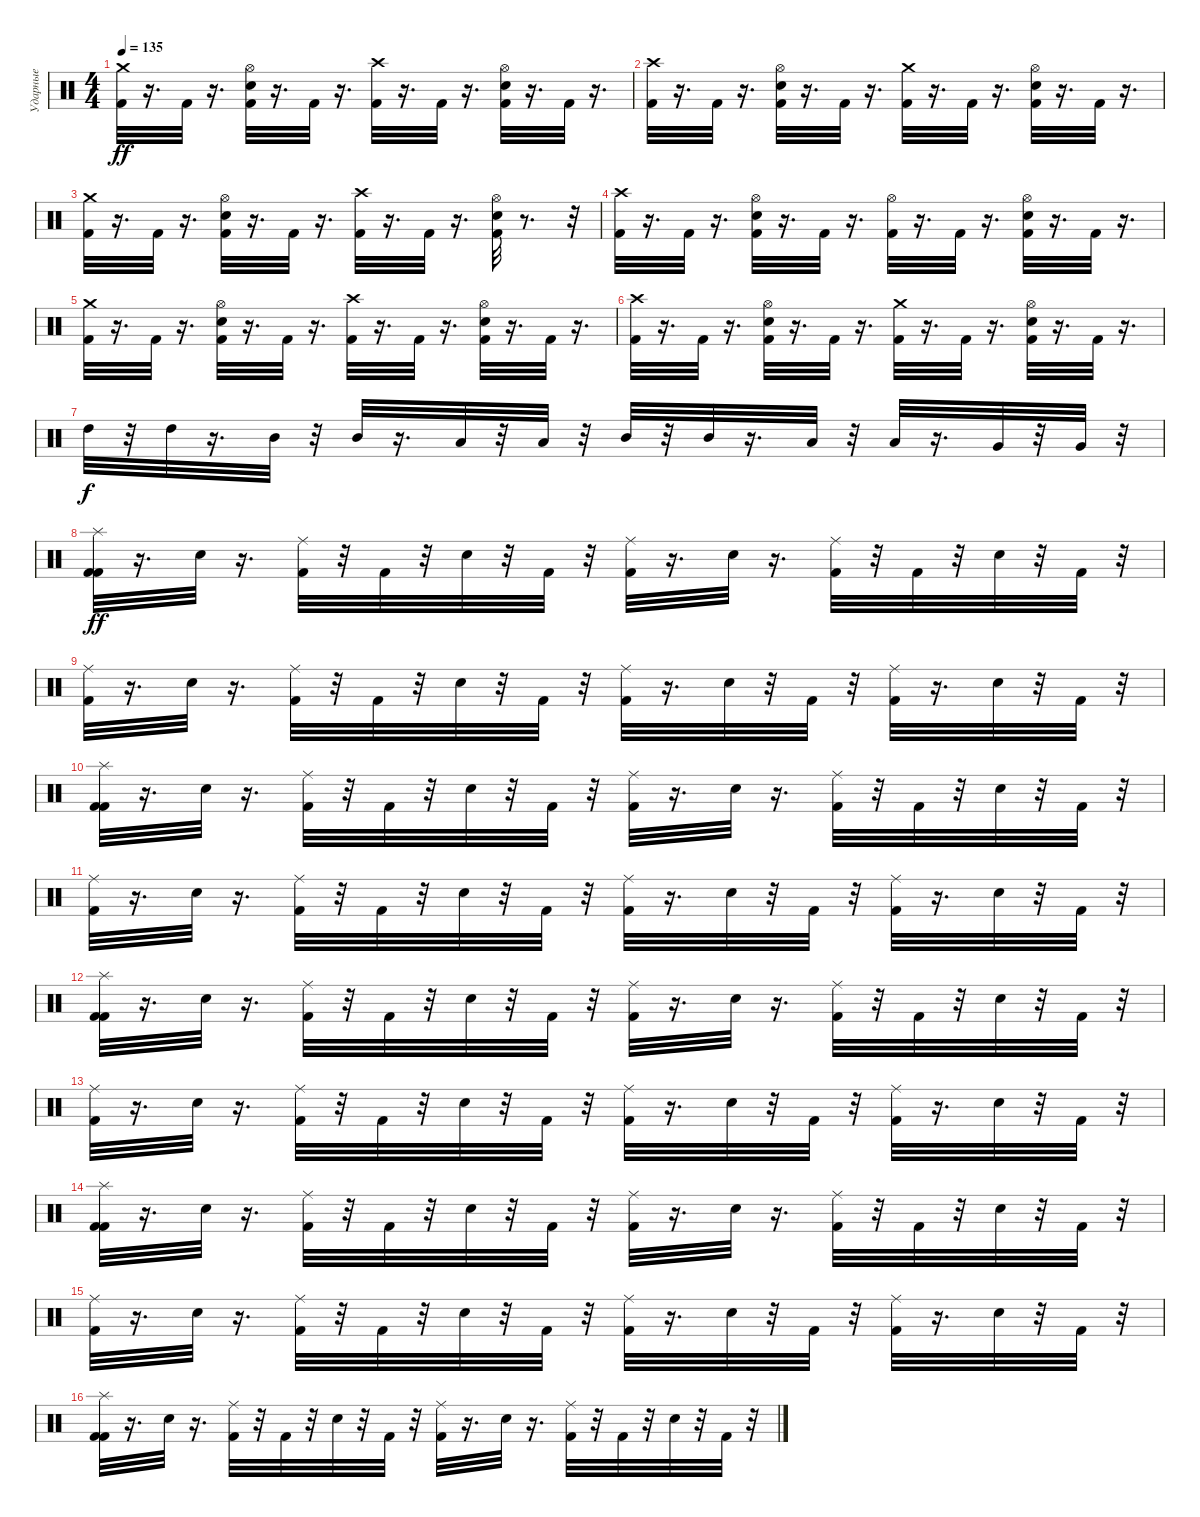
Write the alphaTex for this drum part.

\track ("Ударные" "Ударные") {instrument percussion}
\staff {score}
\articulation defaults
\ts (4 4)
\tempo 135
\clef neutral
\ks c
("Kick (hit) 2" "Crash medium (hit)").32{dy ff} r.16{d} "Kick (hit) 2".32 r.16{d} ("Electric Snare (hit)" "Kick (hit) 2" "Hi-Hat (open)").32 r.16{d} "Kick (hit) 2".32 r.16{d} ("Kick (hit) 2" "Crash high (hit)").32 r.16{d} "Kick (hit) 2".32 r.16{d} ("Electric Snare (hit)" "Kick (hit) 2" "Hi-Hat (open)").32 r.16{d} "Kick (hit) 2".32 r.16{d} |
("Crash high (hit)" "Kick (hit) 2").32 r.16{d} "Kick (hit) 2".32 r.16{d} ("Electric Snare (hit)" "Hi-Hat (open)" "Kick (hit) 2").32 r.16{d} "Kick (hit) 2".32 r.16{d} ("Crash medium (hit)" "Kick (hit) 2").32 r.16{d} "Kick (hit) 2".32 r.16{d} ("Electric Snare (hit)" "Hi-Hat (open)" "Kick (hit) 2").32 r.16{d} "Kick (hit) 2".32 r.16{d} |
("Crash medium (hit)" "Kick (hit) 2").32 r.16{d} "Kick (hit) 2".32 r.16{d} ("Hi-Hat (open)" "Electric Snare (hit)" "Kick (hit) 2").32 r.16{d} "Kick (hit) 2".32 r.16{d} ("Crash high (hit)" "Kick (hit) 2").32 r.16{d} "Kick (hit) 2".32 r.16{d} ("Hi-Hat (open)" "Electric Snare (hit)" "Kick (hit) 2").32 r.8{d} r.32 |
("Crash high (hit)" "Kick (hit) 2").32 r.16{d} "Kick (hit) 2".32 r.16{d} ("Kick (hit) 2" "Electric Snare (hit)" "Hi-Hat (open)").32 r.16{d} "Kick (hit) 2".32 r.16{d} ("Hi-Hat (open)" "Kick (hit) 2").32 r.16{d} "Kick (hit) 2".32 r.16{d} ("Electric Snare (hit)" "Kick (hit) 2" "Hi-Hat (open)").32 r.16{d} "Kick (hit) 2".32 r.16{d} |
("Kick (hit) 2" "Crash medium (hit)").32 r.16{d} "Kick (hit) 2".32 r.16{d} ("Electric Snare (hit)" "Hi-Hat (open)" "Kick (hit) 2").32 r.16{d} "Kick (hit) 2".32 r.16{d} ("Kick (hit) 2" "Crash high (hit)").32 r.16{d} "Kick (hit) 2".32 r.16{d} ("Electric Snare (hit)" "Hi-Hat (open)" "Kick (hit) 2").32 r.16{d} "Kick (hit) 2".32 r.16{d} |
("Kick (hit) 2" "Crash high (hit)").32 r.16{d} "Kick (hit) 2".32 r.16{d} ("Electric Snare (hit)" "Hi-Hat (open)" "Kick (hit) 2").32 r.16{d} "Kick (hit) 2".32 r.16{d} ("Crash medium (hit)" "Kick (hit) 2").32 r.16{d} "Kick (hit) 2".32 r.16{d} ("Electric Snare (hit)" "Hi-Hat (open)" "Kick (hit) 2").32 r.16{d} "Kick (hit) 2".32 r.16{d} |
"High Tom (hit)".32{dy f} r.32 "High Tom (hit)".32 r.16{d} "Mid Tom (hit)".32 r.32 "Mid Tom (hit)".32 r.16{d} "Low Tom (hit)".32 r.32 "Low Tom (hit)".32 r.32 "Mid Tom (hit)".32 r.32 "Mid Tom (hit)".32 r.16{d} "Low Tom (hit)".32 r.32 "Low Tom (hit)".32 r.16{d} "Very Low Tom (hit)".32 r.32 "Very Low Tom (hit)".32 r.32 |
("Splash (hit)" "Kick (hit) 2" "Kick (hit) 2").32{dy ff} r.16{d} "Electric Snare (hit)".32 r.16{d} ("Kick (hit) 2" "Ride (middle)").32 r.32 "Kick (hit) 2".32 r.32 "Electric Snare (hit)".32 r.32 "Kick (hit) 2".32 r.32 ("Kick (hit) 2" "Ride (middle)").32 r.16{d} "Electric Snare (hit)".32 r.16{d} ("Ride (middle)" "Kick (hit) 2").32 r.32 "Kick (hit) 2".32 r.32 "Electric Snare (hit)".32 r.32 "Kick (hit) 2".32 r.32 |
("Ride (middle)" "Kick (hit) 2").32 r.16{d} "Electric Snare (hit)".32 r.16{d} ("Ride (middle)" "Kick (hit) 2").32 r.32 "Kick (hit) 2".32 r.32 "Electric Snare (hit)".32 r.32 "Kick (hit) 2".32 r.32 ("Kick (hit) 2" "Ride (middle)").32 r.16{d} "Electric Snare (hit)".32 r.32 "Kick (hit) 2".32 r.32 ("Ride (middle)" "Kick (hit) 2").32 r.16{d} "Electric Snare (hit)".32 r.32 "Kick (hit) 2".32 r.32 |
("Kick (hit) 2" "Kick (hit) 2" "Splash (hit)").32 r.16{d} "Electric Snare (hit)".32 r.16{d} ("Ride (middle)" "Kick (hit) 2").32 r.32 "Kick (hit) 2".32 r.32 "Electric Snare (hit)".32 r.32 "Kick (hit) 2".32 r.32 ("Ride (middle)" "Kick (hit) 2").32 r.16{d} "Electric Snare (hit)".32 r.16{d} ("Ride (middle)" "Kick (hit) 2").32 r.32 "Kick (hit) 2".32 r.32 "Electric Snare (hit)".32 r.32 "Kick (hit) 2".32 r.32 |
("Ride (middle)" "Kick (hit) 2").32 r.16{d} "Electric Snare (hit)".32 r.16{d} ("Ride (middle)" "Kick (hit) 2").32 r.32 "Kick (hit) 2".32 r.32 "Electric Snare (hit)".32 r.32 "Kick (hit) 2".32 r.32 ("Ride (middle)" "Kick (hit) 2").32 r.16{d} "Electric Snare (hit)".32 r.32 "Kick (hit) 2".32 r.32 ("Ride (middle)" "Kick (hit) 2").32 r.16{d} "Electric Snare (hit)".32 r.32 "Kick (hit) 2".32 r.32 |
("Splash (hit)" "Kick (hit) 2" "Kick (hit) 2").32 r.16{d} "Electric Snare (hit)".32 r.16{d} ("Kick (hit) 2" "Ride (middle)").32 r.32 "Kick (hit) 2".32 r.32 "Electric Snare (hit)".32 r.32 "Kick (hit) 2".32 r.32 ("Kick (hit) 2" "Ride (middle)").32 r.16{d} "Electric Snare (hit)".32 r.16{d} ("Ride (middle)" "Kick (hit) 2").32 r.32 "Kick (hit) 2".32 r.32 "Electric Snare (hit)".32 r.32 "Kick (hit) 2".32 r.32 |
("Ride (middle)" "Kick (hit) 2").32 r.16{d} "Electric Snare (hit)".32 r.16{d} ("Ride (middle)" "Kick (hit) 2").32 r.32 "Kick (hit) 2".32 r.32 "Electric Snare (hit)".32 r.32 "Kick (hit) 2".32 r.32 ("Kick (hit) 2" "Ride (middle)").32 r.16{d} "Electric Snare (hit)".32 r.32 "Kick (hit) 2".32 r.32 ("Ride (middle)" "Kick (hit) 2").32 r.16{d} "Electric Snare (hit)".32 r.32 "Kick (hit) 2".32 r.32 |
("Kick (hit) 2" "Kick (hit) 2" "Splash (hit)").32 r.16{d} "Electric Snare (hit)".32 r.16{d} ("Ride (middle)" "Kick (hit) 2").32 r.32 "Kick (hit) 2".32 r.32 "Electric Snare (hit)".32 r.32 "Kick (hit) 2".32 r.32 ("Ride (middle)" "Kick (hit) 2").32 r.16{d} "Electric Snare (hit)".32 r.16{d} ("Ride (middle)" "Kick (hit) 2").32 r.32 "Kick (hit) 2".32 r.32 "Electric Snare (hit)".32 r.32 "Kick (hit) 2".32 r.32 |
("Ride (middle)" "Kick (hit) 2").32 r.16{d} "Electric Snare (hit)".32 r.16{d} ("Ride (middle)" "Kick (hit) 2").32 r.32 "Kick (hit) 2".32 r.32 "Electric Snare (hit)".32 r.32 "Kick (hit) 2".32 r.32 ("Ride (middle)" "Kick (hit) 2").32 r.16{d} "Electric Snare (hit)".32 r.32 "Kick (hit) 2".32 r.32 ("Ride (middle)" "Kick (hit) 2").32 r.16{d} "Electric Snare (hit)".32 r.32 "Kick (hit) 2".32 r.32 |
("Splash (hit)" "Kick (hit) 2" "Kick (hit) 2").32 r.16{d} "Electric Snare (hit)".32 r.16{d} ("Kick (hit) 2" "Ride (middle)").32 r.32 "Kick (hit) 2".32 r.32 "Electric Snare (hit)".32 r.32 "Kick (hit) 2".32 r.32 ("Kick (hit) 2" "Ride (middle)").32 r.16{d} "Electric Snare (hit)".32 r.16{d} ("Ride (middle)" "Kick (hit) 2").32 r.32 "Kick (hit) 2".32 r.32 "Electric Snare (hit)".32 r.32 "Kick (hit) 2".32 r.32
